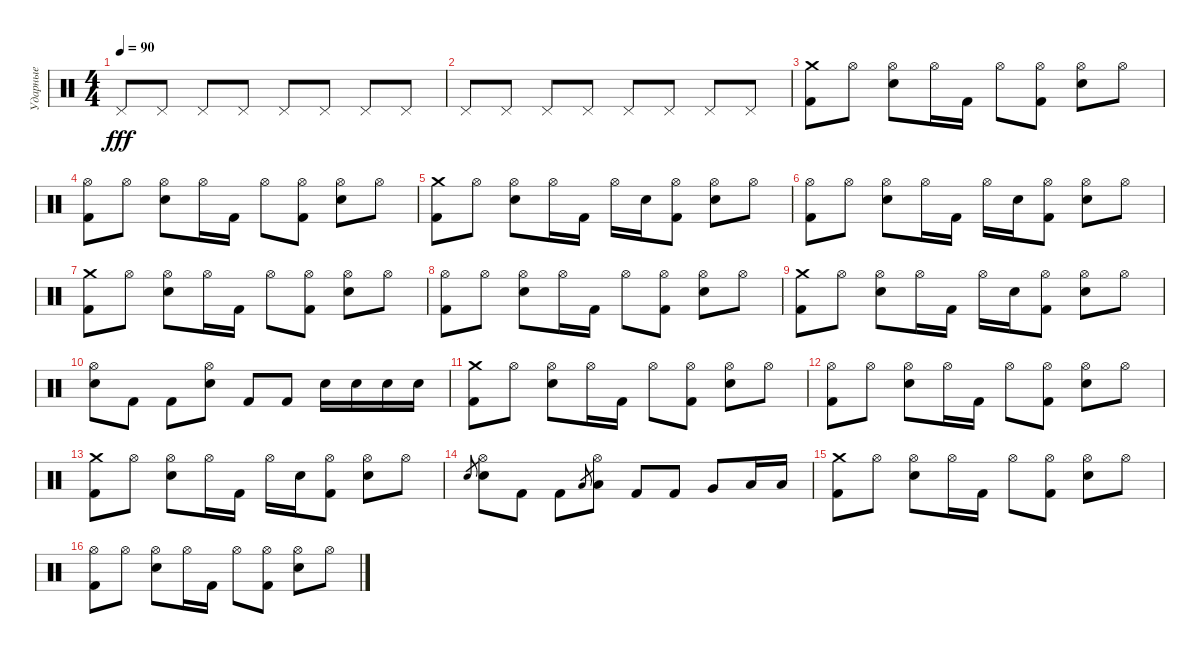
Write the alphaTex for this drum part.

\track ("Ударные" "Ударные") {instrument percussion}
\staff {score}
\articulation defaults
\ts (4 4)
\tempo 90
\clef neutral
\ks c "Pedal Hi-Hat (hit)".8{dy fff} "Pedal Hi-Hat (hit)".8 "Pedal Hi-Hat (hit)".8 "Pedal Hi-Hat (hit)".8 "Pedal Hi-Hat (hit)".8 "Pedal Hi-Hat (hit)".8 "Pedal Hi-Hat (hit)".8 "Pedal Hi-Hat (hit)".8
|
"Pedal Hi-Hat (hit)".8 "Pedal Hi-Hat (hit)".8 "Pedal Hi-Hat (hit)".8 "Pedal Hi-Hat (hit)".8 "Pedal Hi-Hat (hit)".8 "Pedal Hi-Hat (hit)".8 "Pedal Hi-Hat (hit)".8 "Pedal Hi-Hat (hit)".8 |
("Crash medium (hit)" "Kick (hit) 2").8 "Hi-Hat (open)".8 ("Hi-Hat (open)" "Snare (hit) 2").8 "Hi-Hat (open)".16 "Kick (hit) 2".16 "Hi-Hat (open)".8 ("Hi-Hat (open)" "Kick (hit) 2").8 ("Hi-Hat (open)" "Snare (hit) 2").8 "Hi-Hat (open)".8 |
("Hi-Hat (open)" "Kick (hit) 2").8 "Hi-Hat (open)".8 ("Hi-Hat (open)" "Snare (hit) 2").8 "Hi-Hat (open)".16 "Kick (hit) 2".16 "Hi-Hat (open)".8 ("Hi-Hat (open)" "Kick (hit) 2").8 ("Hi-Hat (open)" "Snare (hit) 2").8 "Hi-Hat (open)".8 |
("Crash medium (hit)" "Kick (hit) 2").8 "Hi-Hat (open)".8 ("Hi-Hat (open)" "Snare (hit) 2").8 "Hi-Hat (open)".16 "Kick (hit) 2".16 "Hi-Hat (open)".16 "Snare (hit) 2".16 ("Hi-Hat (open)" "Kick (hit) 2").8 ("Hi-Hat (open)" "Snare (hit) 2").8 "Hi-Hat (open)".8 |
("Hi-Hat (open)" "Kick (hit) 2").8 "Hi-Hat (open)".8 ("Hi-Hat (open)" "Snare (hit) 2").8 "Hi-Hat (open)".16 "Kick (hit) 2".16 "Hi-Hat (open)".16 "Snare (hit) 2".16 ("Hi-Hat (open)" "Kick (hit) 2").8 ("Hi-Hat (open)" "Snare (hit) 2").8 "Hi-Hat (open)".8 |
("Crash medium (hit)" "Kick (hit) 2").8 "Hi-Hat (open)".8 ("Hi-Hat (open)" "Snare (hit) 2").8 "Hi-Hat (open)".16 "Kick (hit) 2".16 "Hi-Hat (open)".8 ("Hi-Hat (open)" "Kick (hit) 2").8 ("Hi-Hat (open)" "Snare (hit) 2").8 "Hi-Hat (open)".8 |
("Hi-Hat (open)" "Kick (hit) 2").8 "Hi-Hat (open)".8 ("Hi-Hat (open)" "Snare (hit) 2").8 "Hi-Hat (open)".16 "Kick (hit) 2".16 "Hi-Hat (open)".8 ("Hi-Hat (open)" "Kick (hit) 2").8 ("Hi-Hat (open)" "Snare (hit) 2").8 "Hi-Hat (open)".8 |
("Crash medium (hit)" "Kick (hit) 2").8 "Hi-Hat (open)".8 ("Hi-Hat (open)" "Snare (hit) 2").8 "Hi-Hat (open)".16 "Kick (hit) 2".16 "Hi-Hat (open)".16 "Snare (hit) 2".16 ("Hi-Hat (open)" "Kick (hit) 2").8 ("Hi-Hat (open)" "Snare (hit) 2").8 "Hi-Hat (open)".8 |
("Hi-Hat (open)" "Snare (hit) 2").8 "Kick (hit) 2".8 "Kick (hit) 2".8 ("Hi-Hat (open)" "Snare (hit) 2").8 "Kick (hit) 2".8 "Kick (hit) 2".8 "Snare (hit) 2".16 "Snare (hit) 2".16 "Snare (hit) 2".16 "Snare (hit) 2".16 |
("Crash medium (hit)" "Kick (hit) 2").8 "Hi-Hat (open)".8 ("Hi-Hat (open)" "Snare (hit) 2").8 "Hi-Hat (open)".16 "Kick (hit) 2".16 "Hi-Hat (open)".8 ("Hi-Hat (open)" "Kick (hit) 2").8 ("Hi-Hat (open)" "Snare (hit) 2").8 "Hi-Hat (open)".8 |
("Hi-Hat (open)" "Kick (hit) 2").8 "Hi-Hat (open)".8 ("Hi-Hat (open)" "Snare (hit) 2").8 "Hi-Hat (open)".16 "Kick (hit) 2".16 "Hi-Hat (open)".8 ("Hi-Hat (open)" "Kick (hit) 2").8 ("Hi-Hat (open)" "Snare (hit) 2").8 "Hi-Hat (open)".8 |
("Crash medium (hit)" "Kick (hit) 2").8 "Hi-Hat (open)".8 ("Hi-Hat (open)" "Snare (hit) 2").8 "Hi-Hat (open)".16 "Kick (hit) 2".16 "Hi-Hat (open)".16 "Snare (hit) 2".16 ("Hi-Hat (open)" "Kick (hit) 2").8 ("Hi-Hat (open)" "Snare (hit) 2").8 "Hi-Hat (open)".8 |
"Snare (hit) 2".8{gr} ("Hi-Hat (open)" "Snare (hit) 2").8 "Kick (hit) 2".8 "Kick (hit) 2".8 "Low Tom (hit)".8{gr} ("Hi-Hat (open)" "Low Tom (hit)").8 "Kick (hit) 2".8 "Kick (hit) 2".8 "Very Low Tom (hit)".8 "Low Floor Tom (hit)".16 "Low Floor Tom (hit)".16 |
("Crash medium (hit)" "Kick (hit) 2").8 "Hi-Hat (open)".8 ("Hi-Hat (open)" "Snare (hit) 2").8 "Hi-Hat (open)".16 "Kick (hit) 2".16 "Hi-Hat (open)".8 ("Hi-Hat (open)" "Kick (hit) 2").8 ("Hi-Hat (open)" "Snare (hit) 2").8 "Hi-Hat (open)".8 |
("Hi-Hat (open)" "Kick (hit) 2").8 "Hi-Hat (open)".8 ("Hi-Hat (open)" "Snare (hit) 2").8 "Hi-Hat (open)".16 "Kick (hit) 2".16 "Hi-Hat (open)".8 ("Hi-Hat (open)" "Kick (hit) 2").8 ("Hi-Hat (open)" "Snare (hit) 2").8 "Hi-Hat (open)".8
